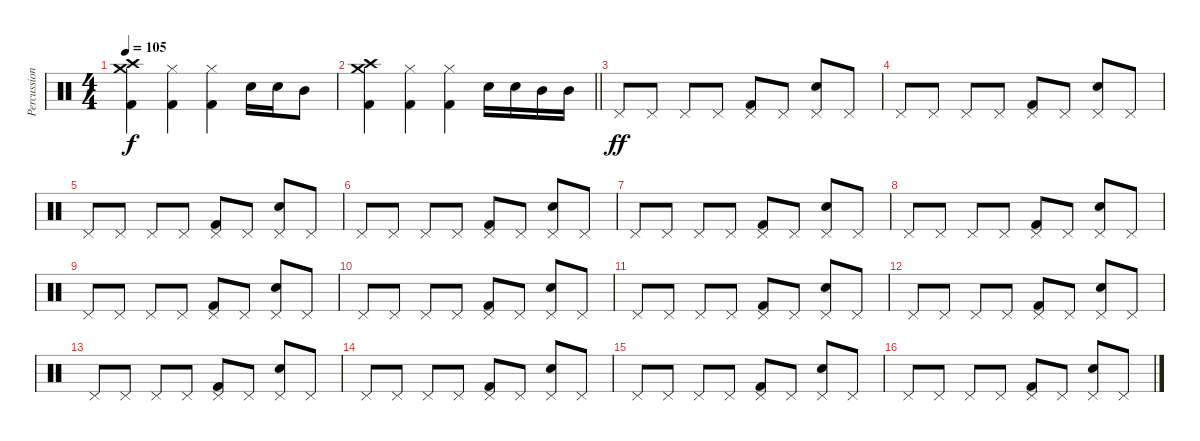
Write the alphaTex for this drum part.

\track ("Percussion" "Percussion") {instrument percussion}
\staff {score}
\articulation defaults
\ts (4 4)
\tempo 105
\clef neutral
\ks c
("Crash high (hit)" "Crash medium (hit)" "Kick (hit) 2").4{dy f} ("Hi-Hat (closed)" "Kick (hit) 2").4 ("Hi-Hat (closed)" "Kick (hit) 2").4 "Electric Snare (hit)".16 "Electric Snare (hit)".16 "Mid Tom (hit)".8 |
\barLineRight lightlight
("Crash high (hit)" "Crash medium (hit)" "Kick (hit) 2").4 ("Hi-Hat (closed)" "Kick (hit) 2").4 ("Hi-Hat (closed)" "Kick (hit) 2").4 "Electric Snare (hit)".16 "Electric Snare (hit)".16 "Mid Tom (hit)".16 "Mid Tom (hit)".16 |
"Pedal Hi-Hat (hit)".8{dy ff} "Pedal Hi-Hat (hit)".8 "Pedal Hi-Hat (hit)".8 "Pedal Hi-Hat (hit)".8 ("Pedal Hi-Hat (hit)" "Kick (hit) 2").8 "Pedal Hi-Hat (hit)".8 ("Pedal Hi-Hat (hit)" "Electric Snare (hit)").8 "Pedal Hi-Hat (hit)".8 |
"Pedal Hi-Hat (hit)".8 "Pedal Hi-Hat (hit)".8 "Pedal Hi-Hat (hit)".8 "Pedal Hi-Hat (hit)".8 ("Pedal Hi-Hat (hit)" "Kick (hit) 2").8 "Pedal Hi-Hat (hit)".8 ("Pedal Hi-Hat (hit)" "Electric Snare (hit)").8 "Pedal Hi-Hat (hit)".8 |
"Pedal Hi-Hat (hit)".8 "Pedal Hi-Hat (hit)".8 "Pedal Hi-Hat (hit)".8 "Pedal Hi-Hat (hit)".8 ("Pedal Hi-Hat (hit)" "Kick (hit) 2").8 "Pedal Hi-Hat (hit)".8 ("Pedal Hi-Hat (hit)" "Electric Snare (hit)").8 "Pedal Hi-Hat (hit)".8 |
"Pedal Hi-Hat (hit)".8 "Pedal Hi-Hat (hit)".8 "Pedal Hi-Hat (hit)".8 "Pedal Hi-Hat (hit)".8 ("Pedal Hi-Hat (hit)" "Kick (hit) 2").8 "Pedal Hi-Hat (hit)".8 ("Pedal Hi-Hat (hit)" "Electric Snare (hit)").8 "Pedal Hi-Hat (hit)".8 |
"Pedal Hi-Hat (hit)".8 "Pedal Hi-Hat (hit)".8 "Pedal Hi-Hat (hit)".8 "Pedal Hi-Hat (hit)".8 ("Pedal Hi-Hat (hit)" "Kick (hit) 2").8 "Pedal Hi-Hat (hit)".8 ("Pedal Hi-Hat (hit)" "Electric Snare (hit)").8 "Pedal Hi-Hat (hit)".8 |
"Pedal Hi-Hat (hit)".8 "Pedal Hi-Hat (hit)".8 "Pedal Hi-Hat (hit)".8 "Pedal Hi-Hat (hit)".8 ("Pedal Hi-Hat (hit)" "Kick (hit) 2").8 "Pedal Hi-Hat (hit)".8 ("Pedal Hi-Hat (hit)" "Electric Snare (hit)").8 "Pedal Hi-Hat (hit)".8 |
"Pedal Hi-Hat (hit)".8 "Pedal Hi-Hat (hit)".8 "Pedal Hi-Hat (hit)".8 "Pedal Hi-Hat (hit)".8 ("Pedal Hi-Hat (hit)" "Kick (hit) 2").8 "Pedal Hi-Hat (hit)".8 ("Pedal Hi-Hat (hit)" "Electric Snare (hit)").8 "Pedal Hi-Hat (hit)".8 |
"Pedal Hi-Hat (hit)".8 "Pedal Hi-Hat (hit)".8 "Pedal Hi-Hat (hit)".8 "Pedal Hi-Hat (hit)".8 ("Pedal Hi-Hat (hit)" "Kick (hit) 2").8 "Pedal Hi-Hat (hit)".8 ("Pedal Hi-Hat (hit)" "Electric Snare (hit)").8 "Pedal Hi-Hat (hit)".8 |
"Pedal Hi-Hat (hit)".8 "Pedal Hi-Hat (hit)".8 "Pedal Hi-Hat (hit)".8 "Pedal Hi-Hat (hit)".8 ("Pedal Hi-Hat (hit)" "Kick (hit) 2").8 "Pedal Hi-Hat (hit)".8 ("Pedal Hi-Hat (hit)" "Electric Snare (hit)").8 "Pedal Hi-Hat (hit)".8 |
"Pedal Hi-Hat (hit)".8 "Pedal Hi-Hat (hit)".8 "Pedal Hi-Hat (hit)".8 "Pedal Hi-Hat (hit)".8 ("Pedal Hi-Hat (hit)" "Kick (hit) 2").8 "Pedal Hi-Hat (hit)".8 ("Pedal Hi-Hat (hit)" "Electric Snare (hit)").8 "Pedal Hi-Hat (hit)".8 |
"Pedal Hi-Hat (hit)".8 "Pedal Hi-Hat (hit)".8 "Pedal Hi-Hat (hit)".8 "Pedal Hi-Hat (hit)".8 ("Pedal Hi-Hat (hit)" "Kick (hit) 2").8 "Pedal Hi-Hat (hit)".8 ("Pedal Hi-Hat (hit)" "Electric Snare (hit)").8 "Pedal Hi-Hat (hit)".8 |
"Pedal Hi-Hat (hit)".8 "Pedal Hi-Hat (hit)".8 "Pedal Hi-Hat (hit)".8 "Pedal Hi-Hat (hit)".8 ("Pedal Hi-Hat (hit)" "Kick (hit) 2").8 "Pedal Hi-Hat (hit)".8 ("Pedal Hi-Hat (hit)" "Electric Snare (hit)").8 "Pedal Hi-Hat (hit)".8 |
"Pedal Hi-Hat (hit)".8 "Pedal Hi-Hat (hit)".8 "Pedal Hi-Hat (hit)".8 "Pedal Hi-Hat (hit)".8 ("Pedal Hi-Hat (hit)" "Kick (hit) 2").8 "Pedal Hi-Hat (hit)".8 ("Pedal Hi-Hat (hit)" "Electric Snare (hit)").8 "Pedal Hi-Hat (hit)".8 |
"Pedal Hi-Hat (hit)".8 "Pedal Hi-Hat (hit)".8 "Pedal Hi-Hat (hit)".8 "Pedal Hi-Hat (hit)".8 ("Pedal Hi-Hat (hit)" "Kick (hit) 2").8 "Pedal Hi-Hat (hit)".8 ("Pedal Hi-Hat (hit)" "Electric Snare (hit)").8 "Pedal Hi-Hat (hit)".8
